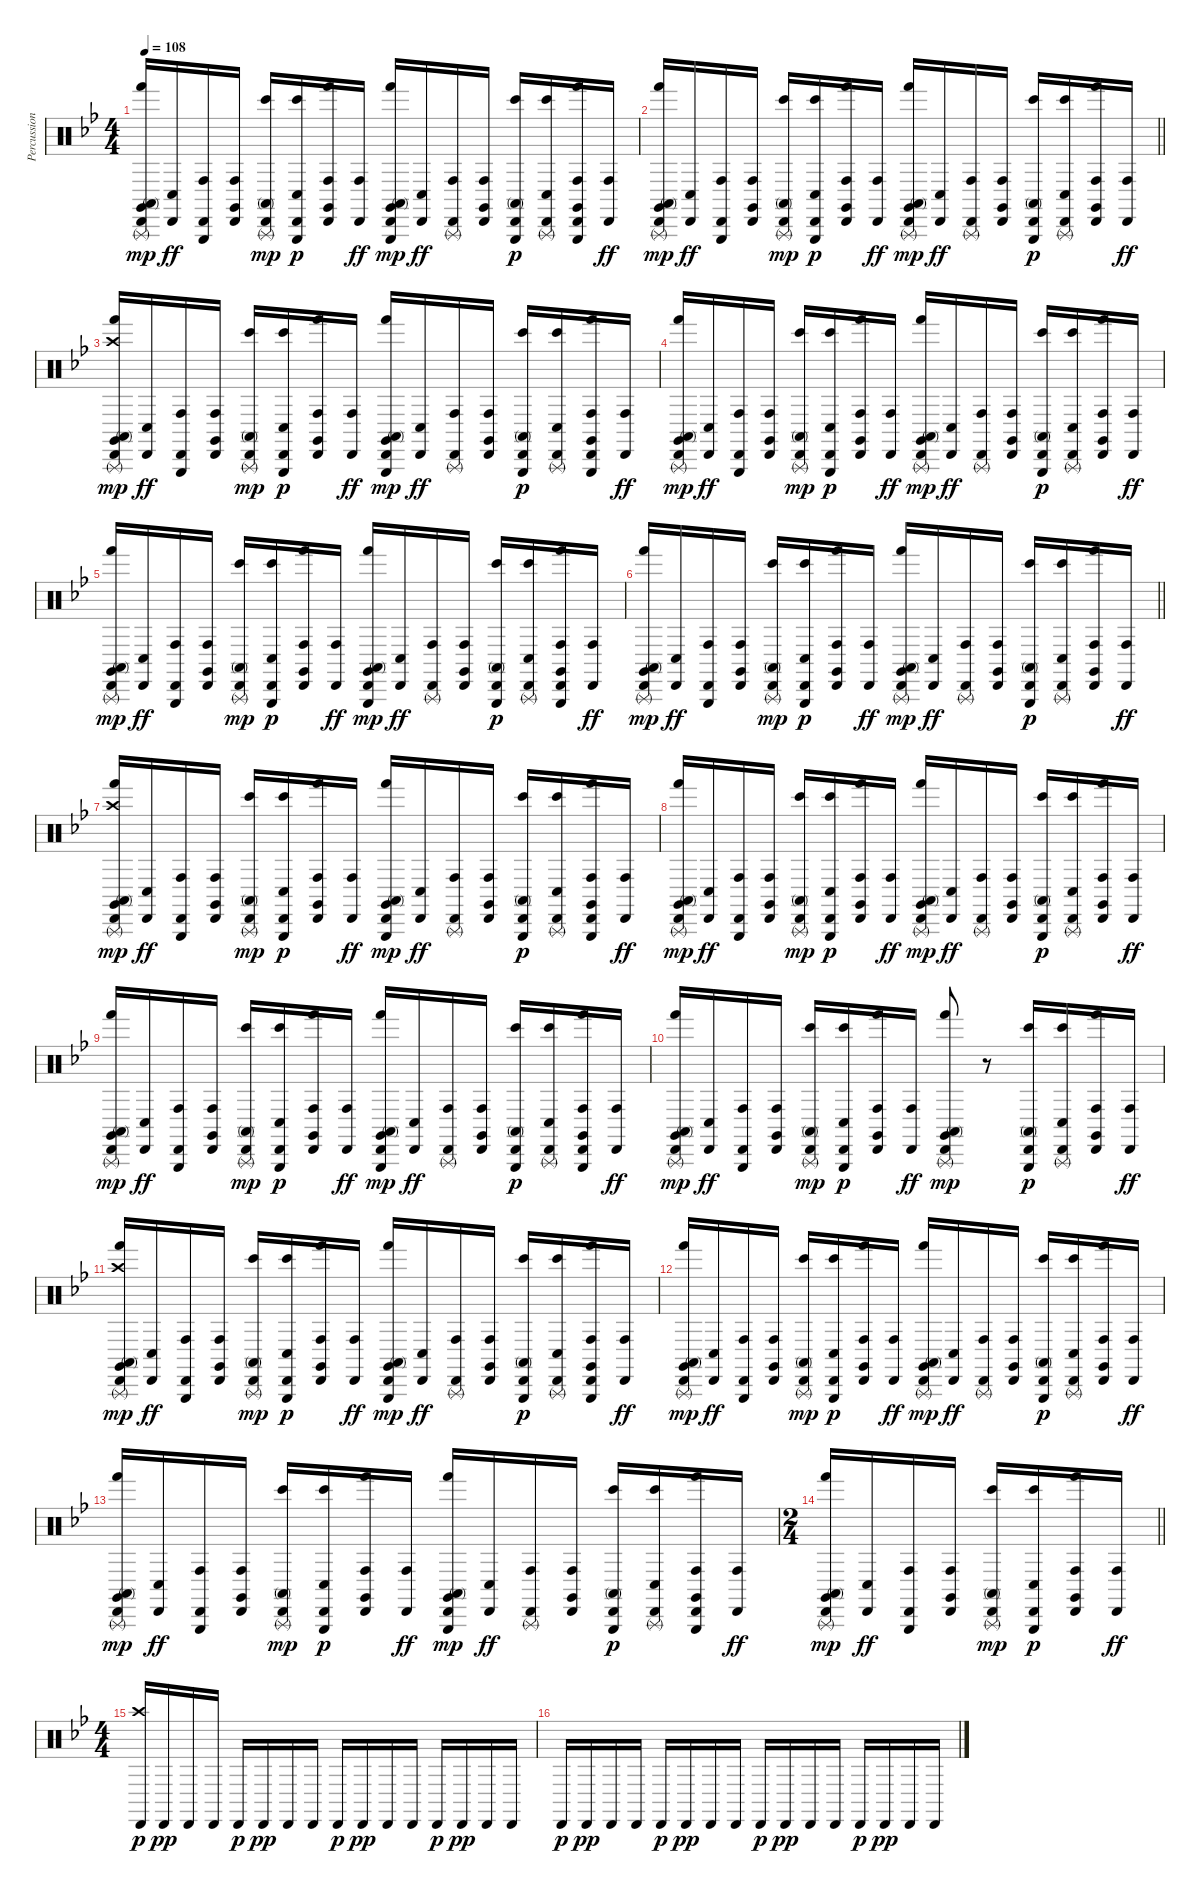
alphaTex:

\track ("Percussion" "Percussion") {instrument percussion}
\staff {score}
\articulation defaults
\ts (4 4)
\tempo 108
\clef neutral
\ks gminor
("Cabasa (hit)" "Claves (hit)" "Triangle (rnute)" "Conga high (mute)" "Hand (hit)").16{dy mp} ("Cabasa (hit)" "Conga low (hit)").16{dy ff} ("Cabasa (hit)" "Triangle (hit)" "Conga high (hit)").16 ("Cabasa (hit)" "Claves (hit)" "Conga high (hit)").16 ("Cabasa (hit)" "Triangle (rnute)" "Conga high (mute)" "Bongo High (hit)").16{dy mp} ("Cabasa (hit)" "Triangle (hit)" "Conga low (hit)" "Bongo High (hit)").16{dy p} ("Cabasa (hit)" "Claves (hit)" "Conga high (hit)" "Hand (hit)").16 ("Cabasa (hit)" "Conga high (hit)").16{dy ff} ("Cabasa (hit)" "Claves (hit)" "Triangle (hit)" "Conga high (mute)" "Hand (hit)").16{dy mp} ("Cabasa (hit)" "Conga low (hit)").16{dy ff} ("Cabasa (hit)" "Triangle (rnute)" "Conga high (hit)").16 ("Cabasa (hit)" "Claves (hit)" "Conga high (hit)").16 ("Cabasa (hit)" "Triangle (hit)" "Conga high (mute)" "Bongo High (hit)").16{dy p} ("Cabasa (hit)" "Triangle (rnute)" "Conga low (hit)" "Bongo High (hit)").16 ("Cabasa (hit)" "Claves (hit)" "Triangle (hit)" "Conga high (hit)" "Hand (hit)").16 ("Cabasa (hit)" "Conga high (hit)").16{dy ff} |
\barLineRight lightlight
("Cabasa (hit)" "Triangle (rnute)" "Claves (hit)" "Conga high (mute)" "Hand (hit)").16{dy mp} ("Cabasa (hit)" "Conga low (hit)").16{dy ff} ("Cabasa (hit)" "Triangle (hit)" "Conga high (hit)").16 ("Cabasa (hit)" "Claves (hit)" "Conga high (hit)").16 ("Cabasa (hit)" "Triangle (rnute)" "Conga high (mute)" "Bongo High (hit)").16{dy mp} ("Cabasa (hit)" "Triangle (hit)" "Conga low (hit)" "Bongo High (hit)").16{dy p} ("Cabasa (hit)" "Claves (hit)" "Conga high (hit)" "Hand (hit)").16 ("Cabasa (hit)" "Conga high (hit)").16{dy ff} ("Cabasa (hit)" "Triangle (rnute)" "Claves (hit)" "Conga high (mute)" "Hand (hit)").16{dy mp} ("Cabasa (hit)" "Conga low (hit)").16{dy ff} ("Cabasa (hit)" "Triangle (rnute)" "Conga high (hit)").16 ("Cabasa (hit)" "Claves (hit)" "Conga high (hit)").16 ("Cabasa (hit)" "Triangle (hit)" "Conga high (mute)" "Bongo High (hit)").16{dy p} ("Cabasa (hit)" "Triangle (rnute)" "Conga low (hit)" "Bongo High (hit)").16 ("Cabasa (hit)" "Claves (hit)" "Conga high (hit)" "Hand (hit)").16 ("Cabasa (hit)" "Conga high (hit)").16{dy ff} |
\section ("" "")
("Crash high (hit)" "Cabasa (hit)" "Claves (hit)" "Triangle (rnute)" "Conga high (mute)" "Hand (hit)").16{dy mp} ("Cabasa (hit)" "Conga low (hit)").16{dy ff} ("Cabasa (hit)" "Triangle (hit)" "Conga high (hit)").16 ("Cabasa (hit)" "Claves (hit)" "Conga high (hit)").16 ("Cabasa (hit)" "Triangle (rnute)" "Conga high (mute)" "Bongo High (hit)").16{dy mp} ("Cabasa (hit)" "Triangle (hit)" "Conga low (hit)" "Bongo High (hit)").16{dy p} ("Cabasa (hit)" "Claves (hit)" "Conga high (hit)" "Hand (hit)").16 ("Cabasa (hit)" "Conga high (hit)").16{dy ff} ("Cabasa (hit)" "Claves (hit)" "Triangle (hit)" "Conga high (mute)" "Hand (hit)").16{dy mp} ("Cabasa (hit)" "Conga low (hit)").16{dy ff} ("Cabasa (hit)" "Triangle (rnute)" "Conga high (hit)").16 ("Cabasa (hit)" "Claves (hit)" "Conga high (hit)").16 ("Cabasa (hit)" "Triangle (hit)" "Conga high (mute)" "Bongo High (hit)").16{dy p} ("Cabasa (hit)" "Triangle (rnute)" "Conga low (hit)" "Bongo High (hit)").16 ("Cabasa (hit)" "Claves (hit)" "Triangle (hit)" "Conga high (hit)" "Hand (hit)").16 ("Cabasa (hit)" "Conga high (hit)").16{dy ff} |
("Cabasa (hit)" "Triangle (rnute)" "Claves (hit)" "Conga high (mute)" "Hand (hit)").16{dy mp} ("Cabasa (hit)" "Conga low (hit)").16{dy ff} ("Cabasa (hit)" "Triangle (hit)" "Conga high (hit)").16 ("Cabasa (hit)" "Claves (hit)" "Conga high (hit)").16 ("Cabasa (hit)" "Triangle (rnute)" "Conga high (mute)" "Bongo High (hit)").16{dy mp} ("Cabasa (hit)" "Triangle (hit)" "Conga low (hit)" "Bongo High (hit)").16{dy p} ("Cabasa (hit)" "Claves (hit)" "Conga high (hit)" "Hand (hit)").16 ("Cabasa (hit)" "Conga high (hit)").16{dy ff} ("Cabasa (hit)" "Triangle (rnute)" "Claves (hit)" "Conga high (mute)" "Hand (hit)").16{dy mp} ("Cabasa (hit)" "Conga low (hit)").16{dy ff} ("Cabasa (hit)" "Triangle (rnute)" "Conga high (hit)").16 ("Cabasa (hit)" "Claves (hit)" "Conga high (hit)").16 ("Cabasa (hit)" "Triangle (hit)" "Conga high (mute)" "Bongo High (hit)").16{dy p} ("Cabasa (hit)" "Triangle (rnute)" "Conga low (hit)" "Bongo High (hit)").16 ("Cabasa (hit)" "Claves (hit)" "Conga high (hit)" "Hand (hit)").16 ("Cabasa (hit)" "Conga high (hit)").16{dy ff} |
("Cabasa (hit)" "Claves (hit)" "Triangle (rnute)" "Conga high (mute)" "Hand (hit)").16{dy mp} ("Cabasa (hit)" "Conga low (hit)").16{dy ff} ("Cabasa (hit)" "Triangle (hit)" "Conga high (hit)").16 ("Cabasa (hit)" "Claves (hit)" "Conga high (hit)").16 ("Cabasa (hit)" "Triangle (rnute)" "Conga high (mute)" "Bongo High (hit)").16{dy mp} ("Cabasa (hit)" "Triangle (hit)" "Conga low (hit)" "Bongo High (hit)").16{dy p} ("Cabasa (hit)" "Claves (hit)" "Conga high (hit)" "Hand (hit)").16 ("Cabasa (hit)" "Conga high (hit)").16{dy ff} ("Cabasa (hit)" "Claves (hit)" "Triangle (hit)" "Conga high (mute)" "Hand (hit)").16{dy mp} ("Cabasa (hit)" "Conga low (hit)").16{dy ff} ("Cabasa (hit)" "Triangle (rnute)" "Conga high (hit)").16 ("Cabasa (hit)" "Claves (hit)" "Conga high (hit)").16 ("Cabasa (hit)" "Triangle (hit)" "Conga high (mute)" "Bongo High (hit)").16{dy p} ("Cabasa (hit)" "Triangle (rnute)" "Conga low (hit)" "Bongo High (hit)").16 ("Cabasa (hit)" "Claves (hit)" "Triangle (hit)" "Conga high (hit)" "Hand (hit)").16 ("Cabasa (hit)" "Conga high (hit)").16{dy ff} |
\barLineRight lightlight
("Cabasa (hit)" "Triangle (rnute)" "Claves (hit)" "Conga high (mute)" "Hand (hit)").16{dy mp} ("Cabasa (hit)" "Conga low (hit)").16{dy ff} ("Cabasa (hit)" "Triangle (hit)" "Conga high (hit)").16 ("Cabasa (hit)" "Claves (hit)" "Conga high (hit)").16 ("Cabasa (hit)" "Triangle (rnute)" "Conga high (mute)" "Bongo High (hit)").16{dy mp} ("Cabasa (hit)" "Triangle (hit)" "Conga low (hit)" "Bongo High (hit)").16{dy p} ("Cabasa (hit)" "Claves (hit)" "Conga high (hit)" "Hand (hit)").16 ("Cabasa (hit)" "Conga high (hit)").16{dy ff} ("Cabasa (hit)" "Triangle (rnute)" "Claves (hit)" "Conga high (mute)" "Hand (hit)").16{dy mp} ("Cabasa (hit)" "Conga low (hit)").16{dy ff} ("Cabasa (hit)" "Triangle (rnute)" "Conga high (hit)").16 ("Cabasa (hit)" "Claves (hit)" "Conga high (hit)").16 ("Cabasa (hit)" "Triangle (hit)" "Conga high (mute)" "Bongo High (hit)").16{dy p} ("Cabasa (hit)" "Triangle (rnute)" "Conga low (hit)" "Bongo High (hit)").16 ("Cabasa (hit)" "Claves (hit)" "Conga high (hit)" "Hand (hit)").16 ("Cabasa (hit)" "Conga high (hit)").16{dy ff} |
\section ("" "")
("Crash high (hit)" "Cabasa (hit)" "Claves (hit)" "Triangle (rnute)" "Conga high (mute)" "Hand (hit)").16{dy mp} ("Cabasa (hit)" "Conga low (hit)").16{dy ff} ("Cabasa (hit)" "Triangle (hit)" "Conga high (hit)").16 ("Cabasa (hit)" "Claves (hit)" "Conga high (hit)").16 ("Cabasa (hit)" "Triangle (rnute)" "Conga high (mute)" "Bongo High (hit)").16{dy mp} ("Cabasa (hit)" "Triangle (hit)" "Conga low (hit)" "Bongo High (hit)").16{dy p} ("Cabasa (hit)" "Claves (hit)" "Conga high (hit)" "Hand (hit)").16 ("Cabasa (hit)" "Conga high (hit)").16{dy ff} ("Cabasa (hit)" "Claves (hit)" "Triangle (hit)" "Conga high (mute)" "Hand (hit)").16{dy mp} ("Cabasa (hit)" "Conga low (hit)").16{dy ff} ("Cabasa (hit)" "Triangle (rnute)" "Conga high (hit)").16 ("Cabasa (hit)" "Claves (hit)" "Conga high (hit)").16 ("Cabasa (hit)" "Triangle (hit)" "Conga high (mute)" "Bongo High (hit)").16{dy p} ("Cabasa (hit)" "Triangle (rnute)" "Conga low (hit)" "Bongo High (hit)").16 ("Cabasa (hit)" "Claves (hit)" "Triangle (hit)" "Conga high (hit)" "Hand (hit)").16 ("Cabasa (hit)" "Conga high (hit)").16{dy ff} |
("Cabasa (hit)" "Triangle (rnute)" "Claves (hit)" "Conga high (mute)" "Hand (hit)").16{dy mp} ("Cabasa (hit)" "Conga low (hit)").16{dy ff} ("Cabasa (hit)" "Triangle (hit)" "Conga high (hit)").16 ("Cabasa (hit)" "Claves (hit)" "Conga high (hit)").16 ("Cabasa (hit)" "Triangle (rnute)" "Conga high (mute)" "Bongo High (hit)").16{dy mp} ("Cabasa (hit)" "Triangle (hit)" "Conga low (hit)" "Bongo High (hit)").16{dy p} ("Cabasa (hit)" "Claves (hit)" "Conga high (hit)" "Hand (hit)").16 ("Cabasa (hit)" "Conga high (hit)").16{dy ff} ("Cabasa (hit)" "Triangle (rnute)" "Claves (hit)" "Conga high (mute)" "Hand (hit)").16{dy mp} ("Cabasa (hit)" "Conga low (hit)").16{dy ff} ("Cabasa (hit)" "Triangle (rnute)" "Conga high (hit)").16 ("Cabasa (hit)" "Claves (hit)" "Conga high (hit)").16 ("Cabasa (hit)" "Triangle (hit)" "Conga high (mute)" "Bongo High (hit)").16{dy p} ("Cabasa (hit)" "Triangle (rnute)" "Conga low (hit)" "Bongo High (hit)").16 ("Cabasa (hit)" "Claves (hit)" "Conga high (hit)" "Hand (hit)").16 ("Cabasa (hit)" "Conga high (hit)").16{dy ff} |
("Cabasa (hit)" "Claves (hit)" "Triangle (rnute)" "Conga high (mute)" "Hand (hit)").16{dy mp} ("Cabasa (hit)" "Conga low (hit)").16{dy ff} ("Cabasa (hit)" "Triangle (hit)" "Conga high (hit)").16 ("Cabasa (hit)" "Claves (hit)" "Conga high (hit)").16 ("Cabasa (hit)" "Triangle (rnute)" "Conga high (mute)" "Bongo High (hit)").16{dy mp} ("Cabasa (hit)" "Triangle (hit)" "Conga low (hit)" "Bongo High (hit)").16{dy p} ("Cabasa (hit)" "Claves (hit)" "Conga high (hit)" "Hand (hit)").16 ("Cabasa (hit)" "Conga high (hit)").16{dy ff} ("Cabasa (hit)" "Claves (hit)" "Triangle (hit)" "Conga high (mute)" "Hand (hit)").16{dy mp} ("Cabasa (hit)" "Conga low (hit)").16{dy ff} ("Cabasa (hit)" "Triangle (rnute)" "Conga high (hit)").16 ("Cabasa (hit)" "Claves (hit)" "Conga high (hit)").16 ("Cabasa (hit)" "Triangle (hit)" "Conga high (mute)" "Bongo High (hit)").16{dy p} ("Cabasa (hit)" "Triangle (rnute)" "Conga low (hit)" "Bongo High (hit)").16 ("Cabasa (hit)" "Claves (hit)" "Triangle (hit)" "Conga high (hit)" "Hand (hit)").16 ("Cabasa (hit)" "Conga high (hit)").16{dy ff} |
("Cabasa (hit)" "Triangle (rnute)" "Claves (hit)" "Conga high (mute)" "Hand (hit)").16{dy mp} ("Cabasa (hit)" "Conga low (hit)").16{dy ff} ("Cabasa (hit)" "Triangle (hit)" "Conga high (hit)").16 ("Cabasa (hit)" "Claves (hit)" "Conga high (hit)").16 ("Cabasa (hit)" "Triangle (rnute)" "Conga high (mute)" "Bongo High (hit)").16{dy mp} ("Cabasa (hit)" "Triangle (hit)" "Conga low (hit)" "Bongo High (hit)").16{dy p} ("Cabasa (hit)" "Claves (hit)" "Conga high (hit)" "Hand (hit)").16 ("Cabasa (hit)" "Conga high (hit)").16{dy ff} ("Cabasa (hit)" "Triangle (rnute)" "Claves (hit)" "Conga high (mute)" "Hand (hit)").8{dy mp} r.8 ("Cabasa (hit)" "Triangle (hit)" "Conga high (mute)" "Bongo High (hit)").16{dy p} ("Cabasa (hit)" "Triangle (rnute)" "Conga low (hit)" "Bongo High (hit)").16 ("Cabasa (hit)" "Claves (hit)" "Conga high (hit)" "Hand (hit)").16 ("Cabasa (hit)" "Conga high (hit)").16{dy ff} |
("Crash high (hit)" "Cabasa (hit)" "Claves (hit)" "Triangle (rnute)" "Conga high (mute)" "Hand (hit)").16{dy mp} ("Cabasa (hit)" "Conga low (hit)").16{dy ff} ("Cabasa (hit)" "Triangle (hit)" "Conga high (hit)").16 ("Cabasa (hit)" "Claves (hit)" "Conga high (hit)").16 ("Cabasa (hit)" "Triangle (rnute)" "Conga high (mute)" "Bongo High (hit)").16{dy mp} ("Cabasa (hit)" "Triangle (hit)" "Conga low (hit)" "Bongo High (hit)").16{dy p} ("Cabasa (hit)" "Claves (hit)" "Conga high (hit)" "Hand (hit)").16 ("Cabasa (hit)" "Conga high (hit)").16{dy ff} ("Cabasa (hit)" "Claves (hit)" "Triangle (hit)" "Conga high (mute)" "Hand (hit)").16{dy mp} ("Cabasa (hit)" "Conga low (hit)").16{dy ff} ("Cabasa (hit)" "Triangle (rnute)" "Conga high (hit)").16 ("Cabasa (hit)" "Claves (hit)" "Conga high (hit)").16 ("Cabasa (hit)" "Triangle (hit)" "Conga high (mute)" "Bongo High (hit)").16{dy p} ("Cabasa (hit)" "Triangle (rnute)" "Conga low (hit)" "Bongo High (hit)").16 ("Cabasa (hit)" "Claves (hit)" "Triangle (hit)" "Conga high (hit)" "Hand (hit)").16 ("Cabasa (hit)" "Conga high (hit)").16{dy ff} |
("Cabasa (hit)" "Triangle (rnute)" "Claves (hit)" "Conga high (mute)" "Hand (hit)").16{dy mp} ("Cabasa (hit)" "Conga low (hit)").16{dy ff} ("Cabasa (hit)" "Triangle (hit)" "Conga high (hit)").16 ("Cabasa (hit)" "Claves (hit)" "Conga high (hit)").16 ("Cabasa (hit)" "Triangle (rnute)" "Conga high (mute)" "Bongo High (hit)").16{dy mp} ("Cabasa (hit)" "Triangle (hit)" "Conga low (hit)" "Bongo High (hit)").16{dy p} ("Cabasa (hit)" "Claves (hit)" "Conga high (hit)" "Hand (hit)").16 ("Cabasa (hit)" "Conga high (hit)").16{dy ff} ("Cabasa (hit)" "Triangle (rnute)" "Claves (hit)" "Conga high (mute)" "Hand (hit)").16{dy mp} ("Cabasa (hit)" "Conga low (hit)").16{dy ff} ("Cabasa (hit)" "Triangle (rnute)" "Conga high (hit)").16 ("Cabasa (hit)" "Claves (hit)" "Conga high (hit)").16 ("Cabasa (hit)" "Triangle (hit)" "Conga high (mute)" "Bongo High (hit)").16{dy p} ("Cabasa (hit)" "Triangle (rnute)" "Conga low (hit)" "Bongo High (hit)").16 ("Cabasa (hit)" "Claves (hit)" "Conga high (hit)" "Hand (hit)").16 ("Cabasa (hit)" "Conga high (hit)").16{dy ff} |
("Cabasa (hit)" "Claves (hit)" "Triangle (rnute)" "Conga high (mute)" "Hand (hit)").16{dy mp} ("Cabasa (hit)" "Conga low (hit)").16{dy ff} ("Cabasa (hit)" "Triangle (hit)" "Conga high (hit)").16 ("Cabasa (hit)" "Claves (hit)" "Conga high (hit)").16 ("Cabasa (hit)" "Triangle (rnute)" "Conga high (mute)" "Bongo High (hit)").16{dy mp} ("Cabasa (hit)" "Triangle (hit)" "Conga low (hit)" "Bongo High (hit)").16{dy p} ("Cabasa (hit)" "Claves (hit)" "Conga high (hit)" "Hand (hit)").16 ("Cabasa (hit)" "Conga high (hit)").16{dy ff} ("Cabasa (hit)" "Claves (hit)" "Triangle (hit)" "Conga high (mute)" "Hand (hit)").16{dy mp} ("Cabasa (hit)" "Conga low (hit)").16{dy ff} ("Cabasa (hit)" "Triangle (rnute)" "Conga high (hit)").16 ("Cabasa (hit)" "Claves (hit)" "Conga high (hit)").16 ("Cabasa (hit)" "Triangle (hit)" "Conga high (mute)" "Bongo High (hit)").16{dy p} ("Cabasa (hit)" "Triangle (rnute)" "Conga low (hit)" "Bongo High (hit)").16 ("Cabasa (hit)" "Claves (hit)" "Triangle (hit)" "Conga high (hit)" "Hand (hit)").16 ("Cabasa (hit)" "Conga high (hit)").16{dy ff} |
\ts (2 4)
\barLineRight lightlight
("Cabasa (hit)" "Triangle (rnute)" "Claves (hit)" "Conga high (mute)" "Hand (hit)").16{dy mp} ("Cabasa (hit)" "Conga low (hit)").16{dy ff} ("Cabasa (hit)" "Triangle (hit)" "Conga high (hit)").16 ("Cabasa (hit)" "Claves (hit)" "Conga high (hit)").16 ("Cabasa (hit)" "Triangle (rnute)" "Conga high (mute)" "Bongo High (hit)").16{dy mp} ("Cabasa (hit)" "Triangle (hit)" "Conga low (hit)" "Bongo High (hit)").16{dy p} ("Cabasa (hit)" "Claves (hit)" "Conga high (hit)" "Hand (hit)").16 ("Cabasa (hit)" "Conga high (hit)").16{dy ff} |
\ts (4 4)
\section ("" "")
("Crash high (hit)" "Cabasa (hit)").16{dy p} "Cabasa (hit)".16{dy pp} "Cabasa (hit)".16 "Cabasa (hit)".16 "Cabasa (hit)".16{dy p} "Cabasa (hit)".16{dy pp} "Cabasa (hit)".16 "Cabasa (hit)".16 "Cabasa (hit)".16{dy p} "Cabasa (hit)".16{dy pp} "Cabasa (hit)".16 "Cabasa (hit)".16 "Cabasa (hit)".16{dy p} "Cabasa (hit)".16{dy pp} "Cabasa (hit)".16 "Cabasa (hit)".16 |
"Cabasa (hit)".16{dy p} "Cabasa (hit)".16{dy pp} "Cabasa (hit)".16 "Cabasa (hit)".16 "Cabasa (hit)".16{dy p} "Cabasa (hit)".16{dy pp} "Cabasa (hit)".16 "Cabasa (hit)".16 "Cabasa (hit)".16{dy p} "Cabasa (hit)".16{dy pp} "Cabasa (hit)".16 "Cabasa (hit)".16 "Cabasa (hit)".16{dy p} "Cabasa (hit)".16{dy pp} "Cabasa (hit)".16 "Cabasa (hit)".16
